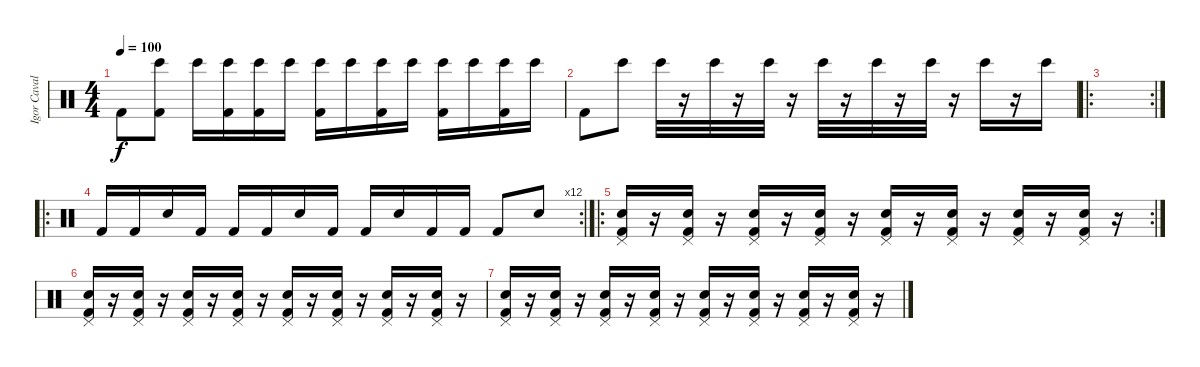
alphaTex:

\track ("Igor Cavalera" "Igor Caval") {instrument percussion}
\staff {score}
\articulation defaults
\ts (4 4)
\tempo 100
\clef neutral
\ks c "Kick (hit) 2".8{dy f}
("Bongo High (hit)" "Kick (hit) 2").8 "Bongo High (hit)".16 ("Bongo High (hit)" "Kick (hit) 2").16 ("Bongo High (hit)" "Kick (hit) 2").16 "Bongo High (hit)".16 ("Bongo High (hit)" "Kick (hit) 2").16 "Bongo High (hit)".16 ("Bongo High (hit)" "Kick (hit) 2").16 "Bongo High (hit)".16 ("Bongo High (hit)" "Kick (hit) 2").16 "Bongo High (hit)".16 ("Bongo High (hit)" "Kick (hit) 2").16 "Bongo High (hit)".16 |
"Kick (hit) 2".8 "Bongo High (hit)".8 "Bongo High (hit)".32 r.16 "Bongo High (hit)".32 r.16 "Bongo High (hit)".32 r.16 "Bongo High (hit)".32 r.16 "Bongo High (hit)".32 r.16 "Bongo High (hit)".32 r.16 "Bongo High (hit)".16 r.16 "Bongo High (hit)".16 |
\ro
\rc 2
|
\ro
\rc 12 "Kick (hit) 2".16 "Kick (hit) 2".16 "Electric Snare (hit)".16 "Kick (hit) 2".16 "Kick (hit) 2".16 "Kick (hit) 2".16 "Electric Snare (hit)".16 "Kick (hit) 2".16 "Kick (hit) 2".16 "Electric Snare (hit)".16 "Kick (hit) 2".16 "Kick (hit) 2".16 "Kick (hit) 2".8 "Electric Snare (hit)".8
|
\ro
\rc 2
("Pedal Hi-Hat (hit)" "Electric Snare (hit)" "Kick (hit) 2").16 r.16 ("Pedal Hi-Hat (hit)" "Electric Snare (hit)" "Kick (hit) 2").16 r.16 ("Pedal Hi-Hat (hit)" "Electric Snare (hit)" "Kick (hit) 2").16 r.16 ("Pedal Hi-Hat (hit)" "Electric Snare (hit)" "Kick (hit) 2").16 r.16 ("Pedal Hi-Hat (hit)" "Electric Snare (hit)" "Kick (hit) 2").16 r.16 ("Pedal Hi-Hat (hit)" "Electric Snare (hit)" "Kick (hit) 2").16 r.16 ("Pedal Hi-Hat (hit)" "Electric Snare (hit)" "Kick (hit) 2").16 r.16 ("Pedal Hi-Hat (hit)" "Electric Snare (hit)" "Kick (hit) 2").16 r.16 |
("Pedal Hi-Hat (hit)" "Electric Snare (hit)" "Kick (hit) 2").16 r.16 ("Pedal Hi-Hat (hit)" "Electric Snare (hit)" "Kick (hit) 2").16 r.16 ("Pedal Hi-Hat (hit)" "Electric Snare (hit)" "Kick (hit) 2").16 r.16 ("Pedal Hi-Hat (hit)" "Electric Snare (hit)" "Kick (hit) 2").16 r.16 ("Pedal Hi-Hat (hit)" "Electric Snare (hit)" "Kick (hit) 2").16 r.16 ("Pedal Hi-Hat (hit)" "Electric Snare (hit)" "Kick (hit) 2").16 r.16 ("Pedal Hi-Hat (hit)" "Electric Snare (hit)" "Kick (hit) 2").16 r.16 ("Pedal Hi-Hat (hit)" "Electric Snare (hit)" "Kick (hit) 2").16 r.16 |
("Pedal Hi-Hat (hit)" "Electric Snare (hit)" "Kick (hit) 2").16 r.16 ("Pedal Hi-Hat (hit)" "Electric Snare (hit)" "Kick (hit) 2").16 r.16 ("Pedal Hi-Hat (hit)" "Electric Snare (hit)" "Kick (hit) 2").16 r.16 ("Pedal Hi-Hat (hit)" "Electric Snare (hit)" "Kick (hit) 2").16 r.16 ("Pedal Hi-Hat (hit)" "Electric Snare (hit)" "Kick (hit) 2").16 r.16 ("Pedal Hi-Hat (hit)" "Electric Snare (hit)" "Kick (hit) 2").16 r.16 ("Pedal Hi-Hat (hit)" "Electric Snare (hit)" "Kick (hit) 2").16 r.16 ("Pedal Hi-Hat (hit)" "Electric Snare (hit)" "Kick (hit) 2").16 r.16
